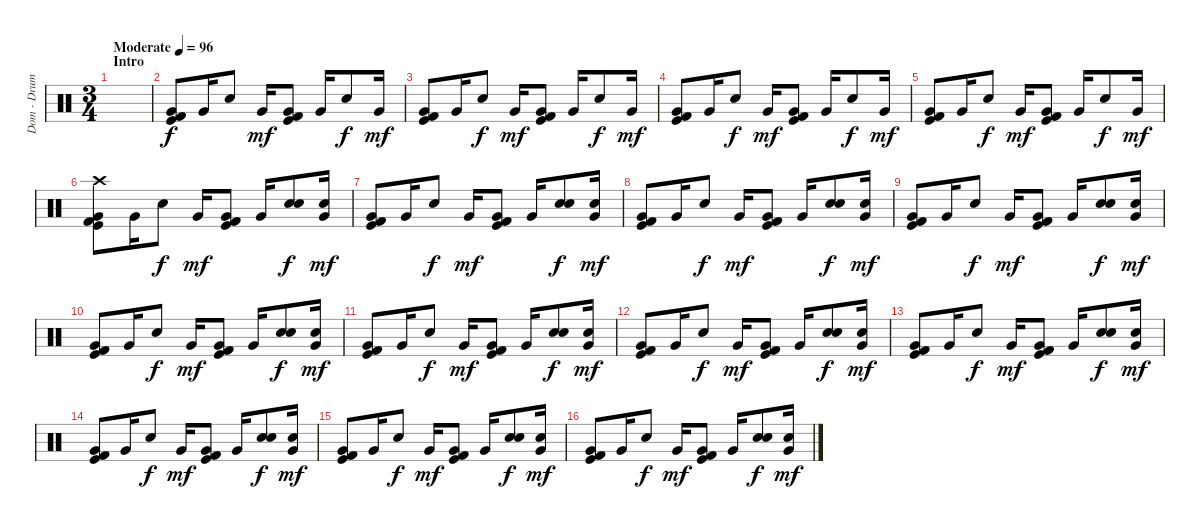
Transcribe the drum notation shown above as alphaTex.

\track ("Dom - Drums" "Dom - Drum") {instrument percussion}
\staff {score}
\articulation defaults
\ts (3 4)
\section ("" "Intro")
\tempo (96 "Moderate")
\clef neutral
\ks c
|
("Very Low Tom (hit)" "Kick (hit)" "Kick (hit) 2").8 "Very Low Tom (hit)".16 "Snare (hit) 2".8{dy f} "Very Low Tom (hit)".16{dy mf} ("Very Low Tom (hit)" "Kick (hit)" "Kick (hit) 2").8 "Very Low Tom (hit)".16 "Snare (hit) 2".8{dy f} "Very Low Tom (hit)".16{dy mf} |
("Very Low Tom (hit)" "Kick (hit)" "Kick (hit) 2").8 "Very Low Tom (hit)".16 "Snare (hit) 2".8{dy f} "Very Low Tom (hit)".16{dy mf} ("Very Low Tom (hit)" "Kick (hit)" "Kick (hit) 2").8 "Very Low Tom (hit)".16 "Snare (hit) 2".8{dy f} "Very Low Tom (hit)".16{dy mf} |
("Very Low Tom (hit)" "Kick (hit)" "Kick (hit) 2").8 "Very Low Tom (hit)".16 "Snare (hit) 2".8{dy f} "Very Low Tom (hit)".16{dy mf} ("Very Low Tom (hit)" "Kick (hit)" "Kick (hit) 2").8 "Very Low Tom (hit)".16 "Snare (hit) 2".8{dy f} "Very Low Tom (hit)".16{dy mf} |
("Very Low Tom (hit)" "Kick (hit)" "Kick (hit) 2").8 "Very Low Tom (hit)".16 "Snare (hit) 2".8{dy f} "Very Low Tom (hit)".16{dy mf} ("Very Low Tom (hit)" "Kick (hit)" "Kick (hit) 2").8 "Very Low Tom (hit)".16 "Snare (hit) 2".8{dy f} "Very Low Tom (hit)".16{dy mf} |
("Crash high (hit)" "Very Low Tom (hit)" "Kick (hit)" "Kick (hit) 2").8 "Very Low Tom (hit)".16 "Snare (hit) 2".8{dy f} "Very Low Tom (hit)".16{dy mf} ("Very Low Tom (hit)" "Kick (hit)" "Kick (hit) 2").8 "Very Low Tom (hit)".16 ("Snare (hit) 2" "Hand Clap (hit)").8{dy f} ("Very Low Tom (hit)" "Hand Clap (hit)").16{dy mf} |
("Very Low Tom (hit)" "Kick (hit)" "Kick (hit) 2").8 "Very Low Tom (hit)".16 "Snare (hit) 2".8{dy f} "Very Low Tom (hit)".16{dy mf} ("Very Low Tom (hit)" "Kick (hit)" "Kick (hit) 2").8 "Very Low Tom (hit)".16 ("Snare (hit) 2" "Hand Clap (hit)").8{dy f} ("Very Low Tom (hit)" "Hand Clap (hit)").16{dy mf} |
("Very Low Tom (hit)" "Kick (hit)" "Kick (hit) 2").8 "Very Low Tom (hit)".16 "Snare (hit) 2".8{dy f} "Very Low Tom (hit)".16{dy mf} ("Very Low Tom (hit)" "Kick (hit)" "Kick (hit) 2").8 "Very Low Tom (hit)".16 ("Snare (hit) 2" "Hand Clap (hit)").8{dy f} ("Very Low Tom (hit)" "Hand Clap (hit)").16{dy mf} |
("Very Low Tom (hit)" "Kick (hit)" "Kick (hit) 2").8 "Very Low Tom (hit)".16 "Snare (hit) 2".8{dy f} "Very Low Tom (hit)".16{dy mf} ("Very Low Tom (hit)" "Kick (hit)" "Kick (hit) 2").8 "Very Low Tom (hit)".16 ("Snare (hit) 2" "Hand Clap (hit)").8{dy f} ("Very Low Tom (hit)" "Hand Clap (hit)").16{dy mf} |
("Very Low Tom (hit)" "Kick (hit)" "Kick (hit) 2").8 "Very Low Tom (hit)".16 "Snare (hit) 2".8{dy f} "Very Low Tom (hit)".16{dy mf} ("Very Low Tom (hit)" "Kick (hit)" "Kick (hit) 2").8 "Very Low Tom (hit)".16 ("Snare (hit) 2" "Hand Clap (hit)").8{dy f} ("Very Low Tom (hit)" "Hand Clap (hit)").16{dy mf} |
("Very Low Tom (hit)" "Kick (hit)" "Kick (hit) 2").8 "Very Low Tom (hit)".16 "Snare (hit) 2".8{dy f} "Very Low Tom (hit)".16{dy mf} ("Very Low Tom (hit)" "Kick (hit)" "Kick (hit) 2").8 "Very Low Tom (hit)".16 ("Snare (hit) 2" "Hand Clap (hit)").8{dy f} ("Very Low Tom (hit)" "Hand Clap (hit)").16{dy mf} |
("Very Low Tom (hit)" "Kick (hit)" "Kick (hit) 2").8 "Very Low Tom (hit)".16 "Snare (hit) 2".8{dy f} "Very Low Tom (hit)".16{dy mf} ("Very Low Tom (hit)" "Kick (hit)" "Kick (hit) 2").8 "Very Low Tom (hit)".16 ("Snare (hit) 2" "Hand Clap (hit)").8{dy f} ("Very Low Tom (hit)" "Hand Clap (hit)").16{dy mf} |
("Very Low Tom (hit)" "Kick (hit)" "Kick (hit) 2").8 "Very Low Tom (hit)".16 "Snare (hit) 2".8{dy f} "Very Low Tom (hit)".16{dy mf} ("Very Low Tom (hit)" "Kick (hit)" "Kick (hit) 2").8 "Very Low Tom (hit)".16 ("Snare (hit) 2" "Hand Clap (hit)").8{dy f} ("Very Low Tom (hit)" "Hand Clap (hit)").16{dy mf} |
("Very Low Tom (hit)" "Kick (hit)" "Kick (hit) 2").8 "Very Low Tom (hit)".16 "Snare (hit) 2".8{dy f} "Very Low Tom (hit)".16{dy mf} ("Very Low Tom (hit)" "Kick (hit)" "Kick (hit) 2").8 "Very Low Tom (hit)".16 ("Snare (hit) 2" "Hand Clap (hit)").8{dy f} ("Very Low Tom (hit)" "Hand Clap (hit)").16{dy mf} |
("Very Low Tom (hit)" "Kick (hit)" "Kick (hit) 2").8 "Very Low Tom (hit)".16 "Snare (hit) 2".8{dy f} "Very Low Tom (hit)".16{dy mf} ("Very Low Tom (hit)" "Kick (hit)" "Kick (hit) 2").8 "Very Low Tom (hit)".16 ("Snare (hit) 2" "Hand Clap (hit)").8{dy f} ("Very Low Tom (hit)" "Hand Clap (hit)").16{dy mf} |
("Very Low Tom (hit)" "Kick (hit)" "Kick (hit) 2").8 "Very Low Tom (hit)".16 "Snare (hit) 2".8{dy f} "Very Low Tom (hit)".16{dy mf} ("Very Low Tom (hit)" "Kick (hit)" "Kick (hit) 2").8 "Very Low Tom (hit)".16 ("Snare (hit) 2" "Hand Clap (hit)").8{dy f} ("Very Low Tom (hit)" "Hand Clap (hit)").16{dy mf}
